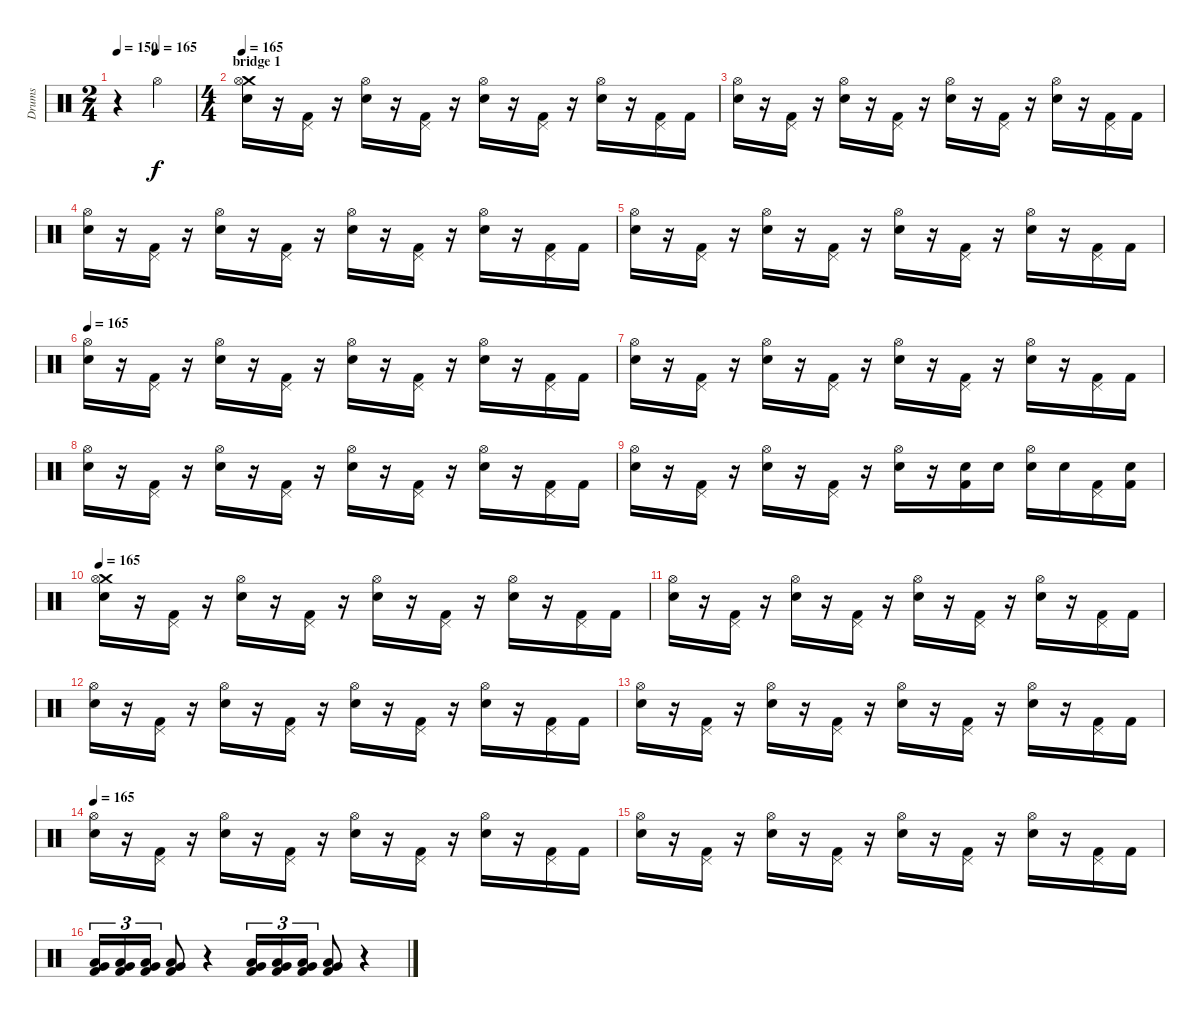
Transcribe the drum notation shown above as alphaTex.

\track ("Drums" "Drums") {instrument percussion}
\staff {score}
\articulation defaults
\ts (2 4)
\tempo 150
\tempo (165 0.5)
\clef neutral
\ks c
r.4{dy f} "Hi-Hat (open)".4 |
\ts (4 4)
\section ("" "bridge 1")
\tempo 165
("Crash medium (hit)" "Hi-Hat (open)" "Electric Snare (hit)").16 r.16 ("Pedal Hi-Hat (hit)" "Kick (hit) 2").16 r.16 ("Hi-Hat (open)" "Electric Snare (hit)").16 r.16 ("Pedal Hi-Hat (hit)" "Kick (hit) 2").16 r.16 ("Hi-Hat (open)" "Electric Snare (hit)").16 r.16 ("Pedal Hi-Hat (hit)" "Kick (hit) 2").16 r.16 ("Hi-Hat (open)" "Electric Snare (hit)").16 r.16 ("Pedal Hi-Hat (hit)" "Kick (hit) 2").16 "Kick (hit) 2".16 |
("Hi-Hat (open)" "Electric Snare (hit)").16 r.16 ("Pedal Hi-Hat (hit)" "Kick (hit) 2").16 r.16 ("Hi-Hat (open)" "Electric Snare (hit)").16 r.16 ("Pedal Hi-Hat (hit)" "Kick (hit) 2").16 r.16 ("Hi-Hat (open)" "Electric Snare (hit)").16 r.16 ("Pedal Hi-Hat (hit)" "Kick (hit) 2").16 r.16 ("Hi-Hat (open)" "Electric Snare (hit)").16 r.16 ("Pedal Hi-Hat (hit)" "Kick (hit) 2").16 "Kick (hit) 2".16 |
("Hi-Hat (open)" "Electric Snare (hit)").16 r.16 ("Pedal Hi-Hat (hit)" "Kick (hit) 2").16 r.16 ("Hi-Hat (open)" "Electric Snare (hit)").16 r.16 ("Pedal Hi-Hat (hit)" "Kick (hit) 2").16 r.16 ("Hi-Hat (open)" "Electric Snare (hit)").16 r.16 ("Pedal Hi-Hat (hit)" "Kick (hit) 2").16 r.16 ("Hi-Hat (open)" "Electric Snare (hit)").16 r.16 ("Pedal Hi-Hat (hit)" "Kick (hit) 2").16 "Kick (hit) 2".16 |
("Hi-Hat (open)" "Electric Snare (hit)").16 r.16 ("Pedal Hi-Hat (hit)" "Kick (hit) 2").16 r.16 ("Hi-Hat (open)" "Electric Snare (hit)").16 r.16 ("Pedal Hi-Hat (hit)" "Kick (hit) 2").16 r.16 ("Hi-Hat (open)" "Electric Snare (hit)").16 r.16 ("Pedal Hi-Hat (hit)" "Kick (hit) 2").16 r.16 ("Hi-Hat (open)" "Electric Snare (hit)").16 r.16 ("Pedal Hi-Hat (hit)" "Kick (hit) 2").16 "Kick (hit) 2".16 |
\tempo 165
("Hi-Hat (open)" "Electric Snare (hit)").16 r.16 ("Pedal Hi-Hat (hit)" "Kick (hit) 2").16 r.16 ("Hi-Hat (open)" "Electric Snare (hit)").16 r.16 ("Pedal Hi-Hat (hit)" "Kick (hit) 2").16 r.16 ("Hi-Hat (open)" "Electric Snare (hit)").16 r.16 ("Pedal Hi-Hat (hit)" "Kick (hit) 2").16 r.16 ("Hi-Hat (open)" "Electric Snare (hit)").16 r.16 ("Pedal Hi-Hat (hit)" "Kick (hit) 2").16 "Kick (hit) 2".16 |
("Hi-Hat (open)" "Electric Snare (hit)").16 r.16 ("Pedal Hi-Hat (hit)" "Kick (hit) 2").16 r.16 ("Hi-Hat (open)" "Electric Snare (hit)").16 r.16 ("Pedal Hi-Hat (hit)" "Kick (hit) 2").16 r.16 ("Hi-Hat (open)" "Electric Snare (hit)").16 r.16 ("Pedal Hi-Hat (hit)" "Kick (hit) 2").16 r.16 ("Hi-Hat (open)" "Electric Snare (hit)").16 r.16 ("Pedal Hi-Hat (hit)" "Kick (hit) 2").16 "Kick (hit) 2".16 |
("Hi-Hat (open)" "Electric Snare (hit)").16 r.16 ("Pedal Hi-Hat (hit)" "Kick (hit) 2").16 r.16 ("Hi-Hat (open)" "Electric Snare (hit)").16 r.16 ("Pedal Hi-Hat (hit)" "Kick (hit) 2").16 r.16 ("Hi-Hat (open)" "Electric Snare (hit)").16 r.16 ("Pedal Hi-Hat (hit)" "Kick (hit) 2").16 r.16 ("Hi-Hat (open)" "Electric Snare (hit)").16 r.16 ("Pedal Hi-Hat (hit)" "Kick (hit) 2").16 "Kick (hit) 2".16 |
("Hi-Hat (open)" "Electric Snare (hit)").16 r.16 ("Pedal Hi-Hat (hit)" "Kick (hit) 2").16 r.16 ("Hi-Hat (open)" "Electric Snare (hit)").16 r.16 ("Pedal Hi-Hat (hit)" "Kick (hit) 2").16 r.16 ("Hi-Hat (open)" "Electric Snare (hit)").16 r.16 ("Electric Snare (hit)" "Kick (hit) 2").16 "Electric Snare (hit)".16 ("Hi-Hat (open)" "Electric Snare (hit)").16 "Electric Snare (hit)".16 ("Pedal Hi-Hat (hit)" "Kick (hit) 2").16 ("Electric Snare (hit)" "Kick (hit) 2").16 |
\tempo 165
("Crash medium (hit)" "Hi-Hat (open)" "Electric Snare (hit)").16 r.16 ("Pedal Hi-Hat (hit)" "Kick (hit) 2").16 r.16 ("Hi-Hat (open)" "Electric Snare (hit)").16 r.16 ("Pedal Hi-Hat (hit)" "Kick (hit) 2").16 r.16 ("Hi-Hat (open)" "Electric Snare (hit)").16 r.16 ("Pedal Hi-Hat (hit)" "Kick (hit) 2").16 r.16 ("Hi-Hat (open)" "Electric Snare (hit)").16 r.16 ("Pedal Hi-Hat (hit)" "Kick (hit) 2").16 "Kick (hit) 2".16 |
("Hi-Hat (open)" "Electric Snare (hit)").16 r.16 ("Pedal Hi-Hat (hit)" "Kick (hit) 2").16 r.16 ("Hi-Hat (open)" "Electric Snare (hit)").16 r.16 ("Pedal Hi-Hat (hit)" "Kick (hit) 2").16 r.16 ("Hi-Hat (open)" "Electric Snare (hit)").16 r.16 ("Pedal Hi-Hat (hit)" "Kick (hit) 2").16 r.16 ("Hi-Hat (open)" "Electric Snare (hit)").16 r.16 ("Pedal Hi-Hat (hit)" "Kick (hit) 2").16 "Kick (hit) 2".16 |
("Hi-Hat (open)" "Electric Snare (hit)").16 r.16 ("Pedal Hi-Hat (hit)" "Kick (hit) 2").16 r.16 ("Hi-Hat (open)" "Electric Snare (hit)").16 r.16 ("Pedal Hi-Hat (hit)" "Kick (hit) 2").16 r.16 ("Hi-Hat (open)" "Electric Snare (hit)").16 r.16 ("Pedal Hi-Hat (hit)" "Kick (hit) 2").16 r.16 ("Hi-Hat (open)" "Electric Snare (hit)").16 r.16 ("Pedal Hi-Hat (hit)" "Kick (hit) 2").16 "Kick (hit) 2".16 |
("Hi-Hat (open)" "Electric Snare (hit)").16 r.16 ("Pedal Hi-Hat (hit)" "Kick (hit) 2").16 r.16 ("Hi-Hat (open)" "Electric Snare (hit)").16 r.16 ("Pedal Hi-Hat (hit)" "Kick (hit) 2").16 r.16 ("Hi-Hat (open)" "Electric Snare (hit)").16 r.16 ("Pedal Hi-Hat (hit)" "Kick (hit) 2").16 r.16 ("Hi-Hat (open)" "Electric Snare (hit)").16 r.16 ("Pedal Hi-Hat (hit)" "Kick (hit) 2").16 "Kick (hit) 2".16 |
\tempo 165
("Hi-Hat (open)" "Electric Snare (hit)").16 r.16 ("Pedal Hi-Hat (hit)" "Kick (hit) 2").16 r.16 ("Hi-Hat (open)" "Electric Snare (hit)").16 r.16 ("Pedal Hi-Hat (hit)" "Kick (hit) 2").16 r.16 ("Hi-Hat (open)" "Electric Snare (hit)").16 r.16 ("Pedal Hi-Hat (hit)" "Kick (hit) 2").16 r.16 ("Hi-Hat (open)" "Electric Snare (hit)").16 r.16 ("Pedal Hi-Hat (hit)" "Kick (hit) 2").16 "Kick (hit) 2".16 |
("Hi-Hat (open)" "Electric Snare (hit)").16 r.16 ("Pedal Hi-Hat (hit)" "Kick (hit) 2").16 r.16 ("Hi-Hat (open)" "Electric Snare (hit)").16 r.16 ("Pedal Hi-Hat (hit)" "Kick (hit) 2").16 r.16 ("Hi-Hat (open)" "Electric Snare (hit)").16 r.16 ("Pedal Hi-Hat (hit)" "Kick (hit) 2").16 r.16 ("Hi-Hat (open)" "Electric Snare (hit)").16 r.16 ("Pedal Hi-Hat (hit)" "Kick (hit) 2").16 "Kick (hit) 2".16 |
("Kick (hit) 2" "Very Low Tom (hit)" "Low Floor Tom (hit)").16{tu (3 2)} ("Kick (hit) 2" "Very Low Tom (hit)" "Low Floor Tom (hit)").16{tu (3 2)} ("Kick (hit) 2" "Very Low Tom (hit)" "Low Floor Tom (hit)").16{tu (3 2)} ("Kick (hit) 2" "Very Low Tom (hit)" "Low Floor Tom (hit)").8 r.4 ("Kick (hit) 2" "Very Low Tom (hit)" "Low Floor Tom (hit)").16{tu (3 2)} ("Kick (hit) 2" "Very Low Tom (hit)" "Low Floor Tom (hit)").16{tu (3 2)} ("Kick (hit) 2" "Very Low Tom (hit)" "Low Floor Tom (hit)").16{tu (3 2)} ("Kick (hit) 2" "Very Low Tom (hit)" "Low Floor Tom (hit)").8 r.4
